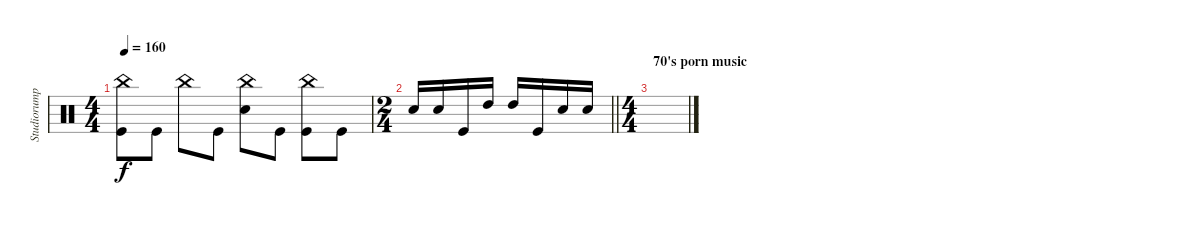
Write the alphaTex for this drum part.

\track ("Studiorumpali" "Studiorump") {instrument percussion}
\staff {score}
\articulation defaults
\ts (4 4)
\tempo 160
\clef neutral
\ks c
("China (hit)" "Kick (hit)").8{dy f} "Kick (hit)".8 "China (hit)".8 "Kick (hit)".8 ("China (hit)" "Snare (hit) 2").8 "Kick (hit)".8 ("China (hit)" "Kick (hit)").8 "Kick (hit)".8 |
\ts (2 4)
\barLineRight lightlight "Snare (hit) 2".16 "Snare (hit) 2".16 "Kick (hit)".16 "High Tom (hit)".16 "High Tom (hit)".16 "Kick (hit)".16 "Snare (hit) 2".16 "Snare (hit) 2".16
|
\ts (4 4)
\section ("" "70's porn music")
